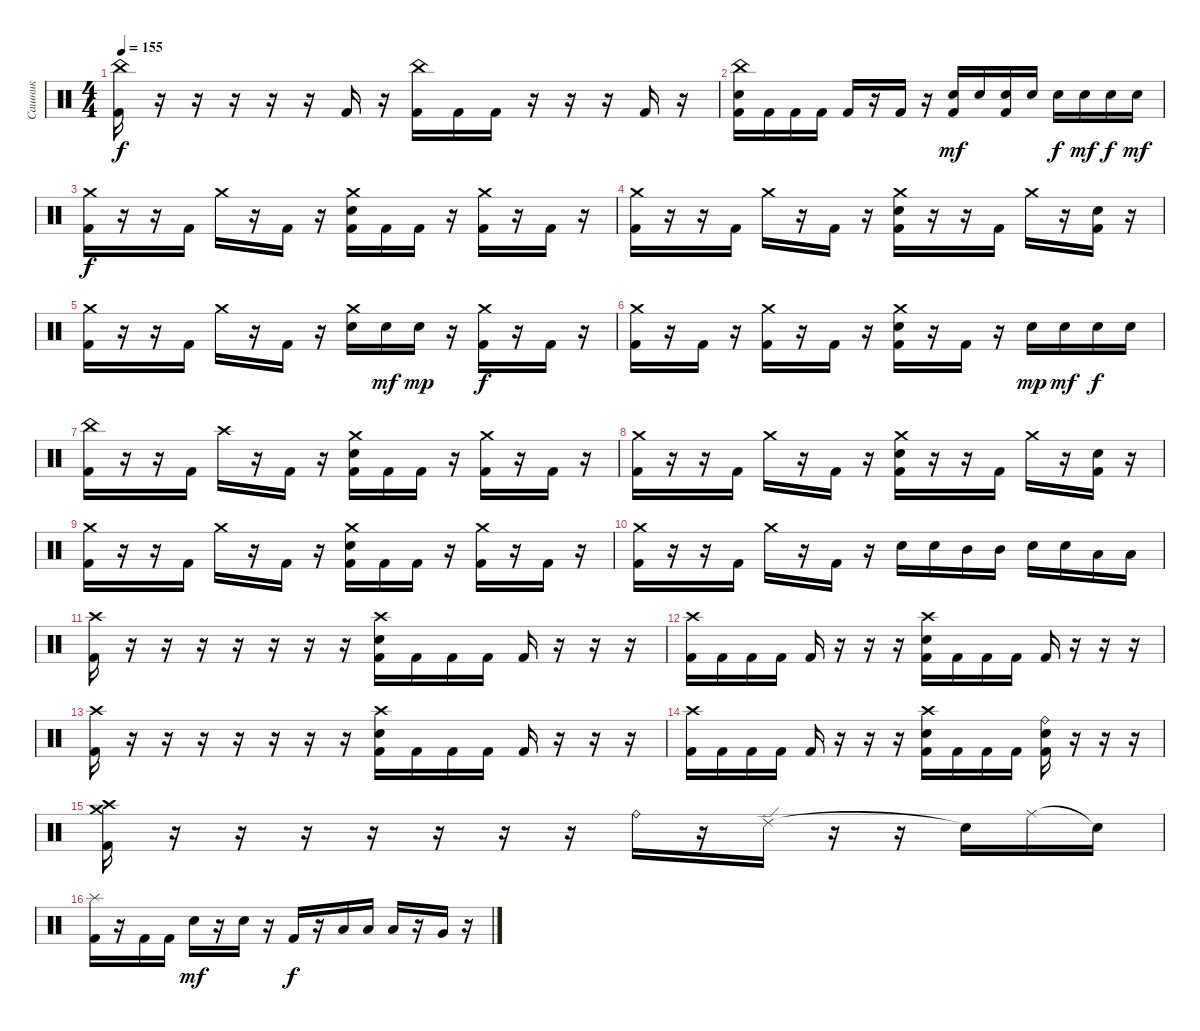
\track ("Сашник" "Сашник") {instrument percussion}
\staff {score}
\articulation defaults
\ts (4 4)
\tempo 155
\clef neutral
\ks c
("China (hit)" "Kick (hit) 2").16{dy f} r.16 r.16 r.16 r.16 r.16 "Kick (hit) 2".16 r.16 ("China (hit)" "Kick (hit) 2").16 "Kick (hit) 2".16 "Kick (hit) 2".16 r.16 r.16 r.16 "Kick (hit) 2".16 r.16 |
("China (hit)" "Electric Snare (hit)" "Kick (hit) 2").16 "Kick (hit) 2".16 "Kick (hit) 2".16 "Kick (hit) 2".16 "Kick (hit) 2".16 r.16 "Kick (hit) 2".16 r.16 ("Electric Snare (hit)" "Kick (hit) 2").16{dy mf} "Electric Snare (hit)".16 ("Electric Snare (hit)" "Kick (hit) 2").16 "Electric Snare (hit)".16 "Electric Snare (hit)".16{dy f} "Electric Snare (hit)".16{dy mf} "Electric Snare (hit)".16{dy f} "Electric Snare (hit)".16{dy mf} |
("Crash medium (hit)" "Kick (hit) 2").16{dy f} r.16 r.16 "Kick (hit) 2".16 "Crash medium (hit)".16 r.16 "Kick (hit) 2".16 r.16 ("Crash medium (hit)" "Electric Snare (hit)" "Kick (hit) 2").16 "Kick (hit) 2".16 "Kick (hit) 2".16 r.16 ("Crash medium (hit)" "Kick (hit) 2").16 r.16 "Kick (hit) 2".16 r.16 |
("Crash medium (hit)" "Kick (hit) 2").16 r.16 r.16 "Kick (hit) 2".16 "Crash medium (hit)".16 r.16 "Kick (hit) 2".16 r.16 ("Crash medium (hit)" "Electric Snare (hit)" "Kick (hit) 2").16 r.16 r.16 "Kick (hit) 2".16 "Crash medium (hit)".16 r.16 ("Electric Snare (hit)" "Kick (hit) 2").16 r.16 |
("Crash medium (hit)" "Kick (hit) 2").16 r.16 r.16 "Kick (hit) 2".16 "Crash medium (hit)".16 r.16 "Kick (hit) 2".16 r.16 ("Crash medium (hit)" "Electric Snare (hit)").16 "Electric Snare (hit)".16{dy mf} "Electric Snare (hit)".16{dy mp} r.16 ("Crash medium (hit)" "Kick (hit) 2").16{dy f} r.16 "Kick (hit) 2".16 r.16 |
("Crash medium (hit)" "Kick (hit) 2").16 r.16 "Kick (hit) 2".16 r.16 ("Crash medium (hit)" "Kick (hit) 2").16 r.16 "Kick (hit) 2".16 r.16 ("Crash medium (hit)" "Electric Snare (hit)" "Kick (hit) 2").16 r.16 "Kick (hit) 2".16 r.16 "Electric Snare (hit)".16{dy mp} "Electric Snare (hit)".16{dy mf} "Electric Snare (hit)".16{dy f} "Electric Snare (hit)".16 |
("China (hit)" "Kick (hit) 2").16 r.16 r.16 "Kick (hit) 2".16 "Crash high (hit)".16 r.16 "Kick (hit) 2".16 r.16 ("Crash medium (hit)" "Electric Snare (hit)" "Kick (hit) 2").16 "Kick (hit) 2".16 "Kick (hit) 2".16 r.16 ("Crash medium (hit)" "Kick (hit) 2").16 r.16 "Kick (hit) 2".16 r.16 |
("Crash medium (hit)" "Kick (hit) 2").16 r.16 r.16 "Kick (hit) 2".16 "Crash medium (hit)".16 r.16 "Kick (hit) 2".16 r.16 ("Crash medium (hit)" "Electric Snare (hit)" "Kick (hit) 2").16 r.16 r.16 "Kick (hit) 2".16 "Crash medium (hit)".16 r.16 ("Electric Snare (hit)" "Kick (hit) 2").16 r.16 |
("Crash medium (hit)" "Kick (hit) 2").16 r.16 r.16 "Kick (hit) 2".16 "Crash medium (hit)".16 r.16 "Kick (hit) 2".16 r.16 ("Crash medium (hit)" "Electric Snare (hit)" "Kick (hit) 2").16 "Kick (hit) 2".16 "Kick (hit) 2".16 r.16 ("Crash medium (hit)" "Kick (hit) 2").16 r.16 "Kick (hit) 2".16 r.16 |
("Crash medium (hit)" "Kick (hit) 2").16 r.16 r.16 "Kick (hit) 2".16 "Crash medium (hit)".16 r.16 "Kick (hit) 2".16 r.16 "Electric Snare (hit)".16 "Electric Snare (hit)".16 "Mid Tom (hit)".16 "Mid Tom (hit)".16 "Electric Snare (hit)".16 "Electric Snare (hit)".16 "Low Tom (hit)".16 "Low Tom (hit)".16 |
("Crash high (hit)" "Kick (hit) 2").16 r.16 r.16 r.16 r.16 r.16 r.16 r.16 ("Crash high (hit)" "Electric Snare (hit)" "Kick (hit) 2").16 "Kick (hit) 2".16 "Kick (hit) 2".16 "Kick (hit) 2".16 "Kick (hit) 2".16 r.16 r.16 r.16 |
("Crash high (hit)" "Kick (hit) 2").16 "Kick (hit) 2".16 "Kick (hit) 2".16 "Kick (hit) 2".16 "Kick (hit) 2".16 r.16 r.16 r.16 ("Crash high (hit)" "Electric Snare (hit)" "Kick (hit) 2").16 "Kick (hit) 2".16 "Kick (hit) 2".16 "Kick (hit) 2".16 "Kick (hit) 2".16 r.16 r.16 r.16 |
("Crash high (hit)" "Kick (hit) 2").16 r.16 r.16 r.16 r.16 r.16 r.16 r.16 ("Crash high (hit)" "Electric Snare (hit)" "Kick (hit) 2").16 "Kick (hit) 2".16 "Kick (hit) 2".16 "Kick (hit) 2".16 "Kick (hit) 2".16 r.16 r.16 r.16 |
("Crash high (hit)" "Kick (hit) 2").16 "Kick (hit) 2".16 "Kick (hit) 2".16 "Kick (hit) 2".16 "Kick (hit) 2".16 r.16 r.16 r.16 ("Crash high (hit)" "Electric Snare (hit)" "Kick (hit) 2").16 "Kick (hit) 2".16 "Kick (hit) 2".16 "Kick (hit) 2".16 ("Ride (bell)" "Electric Snare (hit)" "Kick (hit) 2").16 r.16 r.16 r.16 |
("Crash medium (hit)" "Crash high (hit)" "Kick (hit) 2").16 r.16 r.16 r.16 r.16 r.16 r.16 r.16 "Ride (bell)".16 r.16 "Ride (edge) 2".16 r.16 r.16 "Snare (hit)"{t}.16 "Ride (middle)".16 "Snare (hit)"{t}.16 |
("Splash (hit)" "Kick (hit) 2").16 r.16 "Kick (hit) 2".16 "Kick (hit) 2".16 "Electric Snare (hit)".16{dy mf} r.16 "Electric Snare (hit)".16 r.16 "Kick (hit) 2".16{dy f} r.16 "Low Tom (hit)".16 "Low Tom (hit)".16 "Low Tom (hit)".16 r.16 "Very Low Tom (hit)".16 r.16
